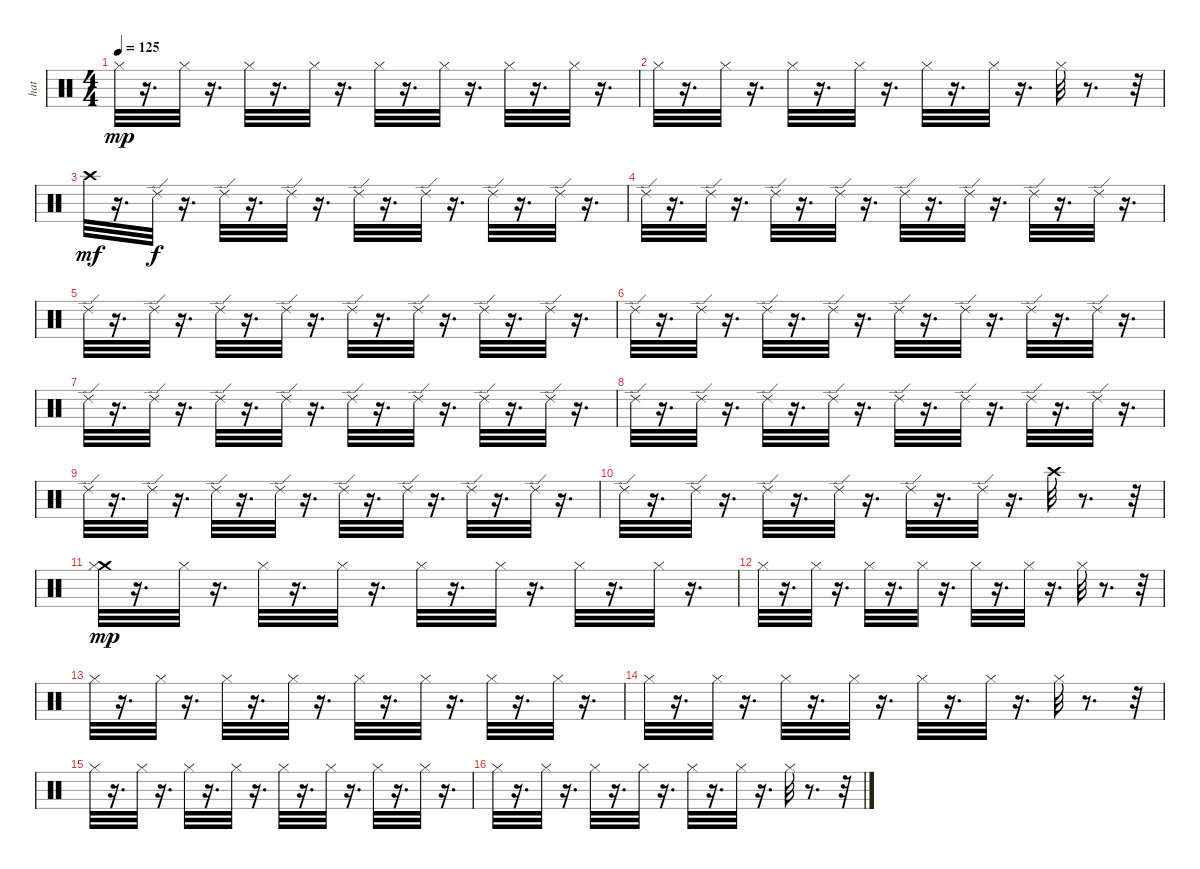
\track ("hat" "hat") {instrument percussion}
\staff {score}
\articulation defaults
\ts (4 4)
\tempo 125
\clef neutral
\ks c "Hi-Hat (closed)".32{dy mp}
r.16{d} "Hi-Hat (closed)".32 r.16{d} "Hi-Hat (closed)".32 r.16{d} "Hi-Hat (closed)".32 r.16{d} "Hi-Hat (closed)".32 r.16{d} "Hi-Hat (closed)".32 r.16{d} "Hi-Hat (closed)".32 r.16{d} "Hi-Hat (closed)".32 r.16{d} |
"Hi-Hat (closed)".32 r.16{d} "Hi-Hat (closed)".32 r.16{d} "Hi-Hat (closed)".32 r.16{d} "Hi-Hat (closed)".32 r.16{d} "Hi-Hat (closed)".32 r.16{d} "Hi-Hat (closed)".32 r.16{d} "Hi-Hat (closed)".32 r.8{d} r.32 |
"Crash high (hit)".32{dy mf} r.16{d} "Ride (edge) 2".32{dy f} r.16{d} "Ride (edge) 2".32 r.16{d} "Ride (edge) 2".32 r.16{d} "Ride (edge) 2".32 r.16{d} "Ride (edge) 2".32 r.16{d} "Ride (edge) 2".32 r.16{d} "Ride (edge) 2".32 r.16{d} |
"Ride (edge) 2".32 r.16{d} "Ride (edge) 2".32 r.16{d} "Ride (edge) 2".32 r.16{d} "Ride (edge) 2".32 r.16{d} "Ride (edge) 2".32 r.16{d} "Ride (edge) 2".32 r.16{d} "Ride (edge) 2".32 r.16{d} "Ride (edge) 2".32 r.16{d} |
"Ride (edge) 2".32 r.16{d} "Ride (edge) 2".32 r.16{d} "Ride (edge) 2".32 r.16{d} "Ride (edge) 2".32 r.16{d} "Ride (edge) 2".32 r.16{d} "Ride (edge) 2".32 r.16{d} "Ride (edge) 2".32 r.16{d} "Ride (edge) 2".32 r.16{d} |
"Ride (edge) 2".32 r.16{d} "Ride (edge) 2".32 r.16{d} "Ride (edge) 2".32 r.16{d} "Ride (edge) 2".32 r.16{d} "Ride (edge) 2".32 r.16{d} "Ride (edge) 2".32 r.16{d} "Ride (edge) 2".32 r.16{d} "Ride (edge) 2".32 r.16{d} |
"Ride (edge) 2".32 r.16{d} "Ride (edge) 2".32 r.16{d} "Ride (edge) 2".32 r.16{d} "Ride (edge) 2".32 r.16{d} "Ride (edge) 2".32 r.16{d} "Ride (edge) 2".32 r.16{d} "Ride (edge) 2".32 r.16{d} "Ride (edge) 2".32 r.16{d} |
"Ride (edge) 2".32 r.16{d} "Ride (edge) 2".32 r.16{d} "Ride (edge) 2".32 r.16{d} "Ride (edge) 2".32 r.16{d} "Ride (edge) 2".32 r.16{d} "Ride (edge) 2".32 r.16{d} "Ride (edge) 2".32 r.16{d} "Ride (edge) 2".32 r.16{d} |
"Ride (edge) 2".32 r.16{d} "Ride (edge) 2".32 r.16{d} "Ride (edge) 2".32 r.16{d} "Ride (edge) 2".32 r.16{d} "Ride (edge) 2".32 r.16{d} "Ride (edge) 2".32 r.16{d} "Ride (edge) 2".32 r.16{d} "Ride (edge) 2".32 r.16{d} |
"Ride (edge) 2".32 r.16{d} "Ride (edge) 2".32 r.16{d} "Ride (edge) 2".32 r.16{d} "Ride (edge) 2".32 r.16{d} "Ride (edge) 2".32 r.16{d} "Ride (edge) 2".32 r.16{d} "Crash high (hit)".32 r.8{d} r.32 |
("Crash medium (hit)" "Hi-Hat (closed)").32{dy mp} r.16{d} "Hi-Hat (closed)".32 r.16{d} "Hi-Hat (closed)".32 r.16{d} "Hi-Hat (closed)".32 r.16{d} "Hi-Hat (closed)".32 r.16{d} "Hi-Hat (closed)".32 r.16{d} "Hi-Hat (closed)".32 r.16{d} "Hi-Hat (closed)".32 r.16{d} |
"Hi-Hat (closed)".32 r.16{d} "Hi-Hat (closed)".32 r.16{d} "Hi-Hat (closed)".32 r.16{d} "Hi-Hat (closed)".32 r.16{d} "Hi-Hat (closed)".32 r.16{d} "Hi-Hat (closed)".32 r.16{d} "Hi-Hat (closed)".32 r.8{d} r.32 |
"Hi-Hat (closed)".32 r.16{d} "Hi-Hat (closed)".32 r.16{d} "Hi-Hat (closed)".32 r.16{d} "Hi-Hat (closed)".32 r.16{d} "Hi-Hat (closed)".32 r.16{d} "Hi-Hat (closed)".32 r.16{d} "Hi-Hat (closed)".32 r.16{d} "Hi-Hat (closed)".32 r.16{d} |
"Hi-Hat (closed)".32 r.16{d} "Hi-Hat (closed)".32 r.16{d} "Hi-Hat (closed)".32 r.16{d} "Hi-Hat (closed)".32 r.16{d} "Hi-Hat (closed)".32 r.16{d} "Hi-Hat (closed)".32 r.16{d} "Hi-Hat (closed)".32 r.8{d} r.32 |
"Hi-Hat (closed)".32 r.16{d} "Hi-Hat (closed)".32 r.16{d} "Hi-Hat (closed)".32 r.16{d} "Hi-Hat (closed)".32 r.16{d} "Hi-Hat (closed)".32 r.16{d} "Hi-Hat (closed)".32 r.16{d} "Hi-Hat (closed)".32 r.16{d} "Hi-Hat (closed)".32 r.16{d} |
"Hi-Hat (closed)".32 r.16{d} "Hi-Hat (closed)".32 r.16{d} "Hi-Hat (closed)".32 r.16{d} "Hi-Hat (closed)".32 r.16{d} "Hi-Hat (closed)".32 r.16{d} "Hi-Hat (closed)".32 r.16{d} "Hi-Hat (closed)".32 r.8{d} r.32
